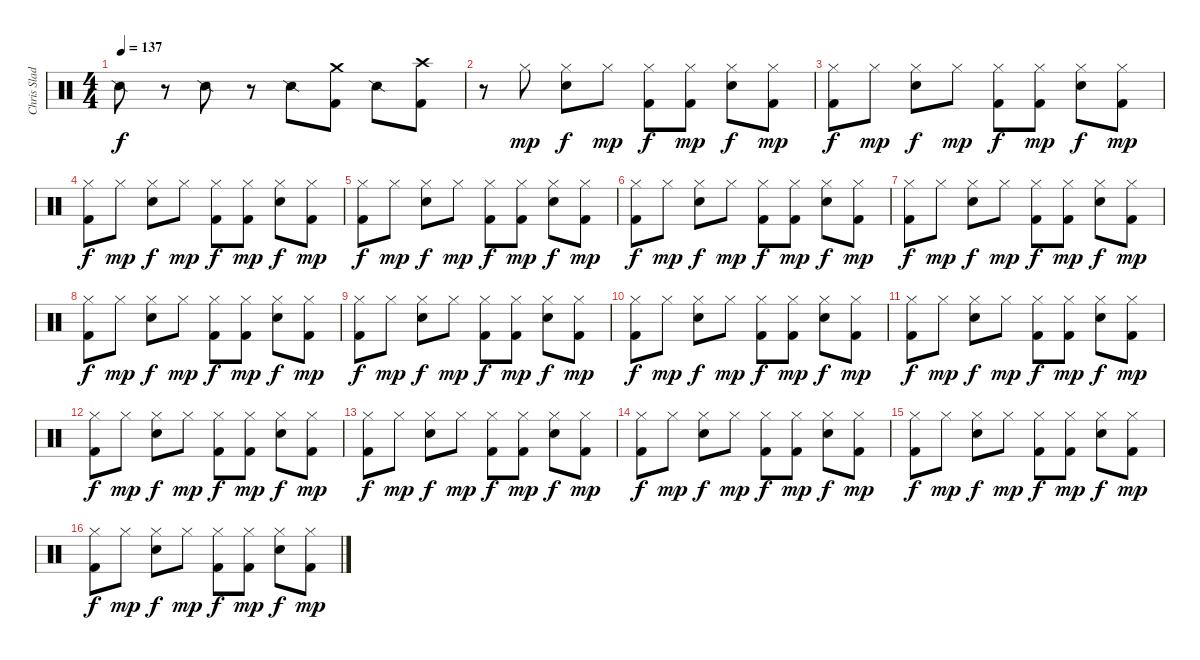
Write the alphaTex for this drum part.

\track ("Chris Slade / Drums" "Chris Slad") {instrument percussion}
\staff {score}
\articulation defaults
\ts (4 4)
\tempo 137
\clef neutral
\ks c "Snare (side stick) 2".8{dy f}
r.8 "Snare (side stick) 2".8 r.8 "Snare (side stick) 2".8 ("Crash medium (hit)" "Kick (hit) 2").8 "Snare (side stick) 2".8 ("Crash high (hit)" "Kick (hit) 2").8 |
r.8 "Hi-Hat (closed)".8{dy mp} ("Hi-Hat (closed)" "Electric Snare (hit)").8{dy f} "Hi-Hat (closed)".8{dy mp} ("Hi-Hat (closed)" "Kick (hit) 2").8{dy f} ("Hi-Hat (closed)" "Kick (hit) 2").8{dy mp} ("Hi-Hat (closed)" "Electric Snare (hit)").8{dy f} ("Hi-Hat (closed)" "Kick (hit) 2").8{dy mp} |
("Hi-Hat (closed)" "Kick (hit) 2").8{dy f} "Hi-Hat (closed)".8{dy mp} ("Hi-Hat (closed)" "Electric Snare (hit)").8{dy f} "Hi-Hat (closed)".8{dy mp} ("Hi-Hat (closed)" "Kick (hit) 2").8{dy f} ("Hi-Hat (closed)" "Kick (hit) 2").8{dy mp} ("Hi-Hat (closed)" "Electric Snare (hit)").8{dy f} ("Hi-Hat (closed)" "Kick (hit) 2").8{dy mp} |
("Hi-Hat (closed)" "Kick (hit) 2").8{dy f} "Hi-Hat (closed)".8{dy mp} ("Hi-Hat (closed)" "Electric Snare (hit)").8{dy f} "Hi-Hat (closed)".8{dy mp} ("Hi-Hat (closed)" "Kick (hit) 2").8{dy f} ("Hi-Hat (closed)" "Kick (hit) 2").8{dy mp} ("Hi-Hat (closed)" "Electric Snare (hit)").8{dy f} ("Hi-Hat (closed)" "Kick (hit) 2").8{dy mp} |
("Hi-Hat (closed)" "Kick (hit) 2").8{dy f} "Hi-Hat (closed)".8{dy mp} ("Hi-Hat (closed)" "Electric Snare (hit)").8{dy f} "Hi-Hat (closed)".8{dy mp} ("Hi-Hat (closed)" "Kick (hit) 2").8{dy f} ("Hi-Hat (closed)" "Kick (hit) 2").8{dy mp} ("Hi-Hat (closed)" "Electric Snare (hit)").8{dy f} ("Hi-Hat (closed)" "Kick (hit) 2").8{dy mp} |
("Hi-Hat (closed)" "Kick (hit) 2").8{dy f} "Hi-Hat (closed)".8{dy mp} ("Hi-Hat (closed)" "Electric Snare (hit)").8{dy f} "Hi-Hat (closed)".8{dy mp} ("Hi-Hat (closed)" "Kick (hit) 2").8{dy f} ("Hi-Hat (closed)" "Kick (hit) 2").8{dy mp} ("Hi-Hat (closed)" "Electric Snare (hit)").8{dy f} ("Hi-Hat (closed)" "Kick (hit) 2").8{dy mp} |
("Hi-Hat (closed)" "Kick (hit) 2").8{dy f} "Hi-Hat (closed)".8{dy mp} ("Hi-Hat (closed)" "Electric Snare (hit)").8{dy f} "Hi-Hat (closed)".8{dy mp} ("Hi-Hat (closed)" "Kick (hit) 2").8{dy f} ("Hi-Hat (closed)" "Kick (hit) 2").8{dy mp} ("Hi-Hat (closed)" "Electric Snare (hit)").8{dy f} ("Hi-Hat (closed)" "Kick (hit) 2").8{dy mp} |
("Hi-Hat (closed)" "Kick (hit) 2").8{dy f} "Hi-Hat (closed)".8{dy mp} ("Hi-Hat (closed)" "Electric Snare (hit)").8{dy f} "Hi-Hat (closed)".8{dy mp} ("Hi-Hat (closed)" "Kick (hit) 2").8{dy f} ("Hi-Hat (closed)" "Kick (hit) 2").8{dy mp} ("Hi-Hat (closed)" "Electric Snare (hit)").8{dy f} ("Hi-Hat (closed)" "Kick (hit) 2").8{dy mp} |
("Hi-Hat (closed)" "Kick (hit) 2").8{dy f} "Hi-Hat (closed)".8{dy mp} ("Hi-Hat (closed)" "Electric Snare (hit)").8{dy f} "Hi-Hat (closed)".8{dy mp} ("Hi-Hat (closed)" "Kick (hit) 2").8{dy f} ("Hi-Hat (closed)" "Kick (hit) 2").8{dy mp} ("Hi-Hat (closed)" "Electric Snare (hit)").8{dy f} ("Hi-Hat (closed)" "Kick (hit) 2").8{dy mp} |
("Hi-Hat (closed)" "Kick (hit) 2").8{dy f} "Hi-Hat (closed)".8{dy mp} ("Hi-Hat (closed)" "Electric Snare (hit)").8{dy f} "Hi-Hat (closed)".8{dy mp} ("Hi-Hat (closed)" "Kick (hit) 2").8{dy f} ("Hi-Hat (closed)" "Kick (hit) 2").8{dy mp} ("Hi-Hat (closed)" "Electric Snare (hit)").8{dy f} ("Hi-Hat (closed)" "Kick (hit) 2").8{dy mp} |
("Hi-Hat (closed)" "Kick (hit) 2").8{dy f} "Hi-Hat (closed)".8{dy mp} ("Hi-Hat (closed)" "Electric Snare (hit)").8{dy f} "Hi-Hat (closed)".8{dy mp} ("Hi-Hat (closed)" "Kick (hit) 2").8{dy f} ("Hi-Hat (closed)" "Kick (hit) 2").8{dy mp} ("Hi-Hat (closed)" "Electric Snare (hit)").8{dy f} ("Hi-Hat (closed)" "Kick (hit) 2").8{dy mp} |
("Hi-Hat (closed)" "Kick (hit) 2").8{dy f} "Hi-Hat (closed)".8{dy mp} ("Hi-Hat (closed)" "Electric Snare (hit)").8{dy f} "Hi-Hat (closed)".8{dy mp} ("Hi-Hat (closed)" "Kick (hit) 2").8{dy f} ("Hi-Hat (closed)" "Kick (hit) 2").8{dy mp} ("Hi-Hat (closed)" "Electric Snare (hit)").8{dy f} ("Hi-Hat (closed)" "Kick (hit) 2").8{dy mp} |
("Hi-Hat (closed)" "Kick (hit) 2").8{dy f} "Hi-Hat (closed)".8{dy mp} ("Hi-Hat (closed)" "Electric Snare (hit)").8{dy f} "Hi-Hat (closed)".8{dy mp} ("Hi-Hat (closed)" "Kick (hit) 2").8{dy f} ("Hi-Hat (closed)" "Kick (hit) 2").8{dy mp} ("Hi-Hat (closed)" "Electric Snare (hit)").8{dy f} ("Hi-Hat (closed)" "Kick (hit) 2").8{dy mp} |
("Hi-Hat (closed)" "Kick (hit) 2").8{dy f} "Hi-Hat (closed)".8{dy mp} ("Hi-Hat (closed)" "Electric Snare (hit)").8{dy f} "Hi-Hat (closed)".8{dy mp} ("Hi-Hat (closed)" "Kick (hit) 2").8{dy f} ("Hi-Hat (closed)" "Kick (hit) 2").8{dy mp} ("Hi-Hat (closed)" "Electric Snare (hit)").8{dy f} ("Hi-Hat (closed)" "Kick (hit) 2").8{dy mp} |
("Hi-Hat (closed)" "Kick (hit) 2").8{dy f} "Hi-Hat (closed)".8{dy mp} ("Hi-Hat (closed)" "Electric Snare (hit)").8{dy f} "Hi-Hat (closed)".8{dy mp} ("Hi-Hat (closed)" "Kick (hit) 2").8{dy f} ("Hi-Hat (closed)" "Kick (hit) 2").8{dy mp} ("Hi-Hat (closed)" "Electric Snare (hit)").8{dy f} ("Hi-Hat (closed)" "Kick (hit) 2").8{dy mp} |
("Hi-Hat (closed)" "Kick (hit) 2").8{dy f} "Hi-Hat (closed)".8{dy mp} ("Hi-Hat (closed)" "Electric Snare (hit)").8{dy f} "Hi-Hat (closed)".8{dy mp} ("Hi-Hat (closed)" "Kick (hit) 2").8{dy f} ("Hi-Hat (closed)" "Kick (hit) 2").8{dy mp} ("Hi-Hat (closed)" "Electric Snare (hit)").8{dy f} ("Hi-Hat (closed)" "Kick (hit) 2").8{dy mp}
